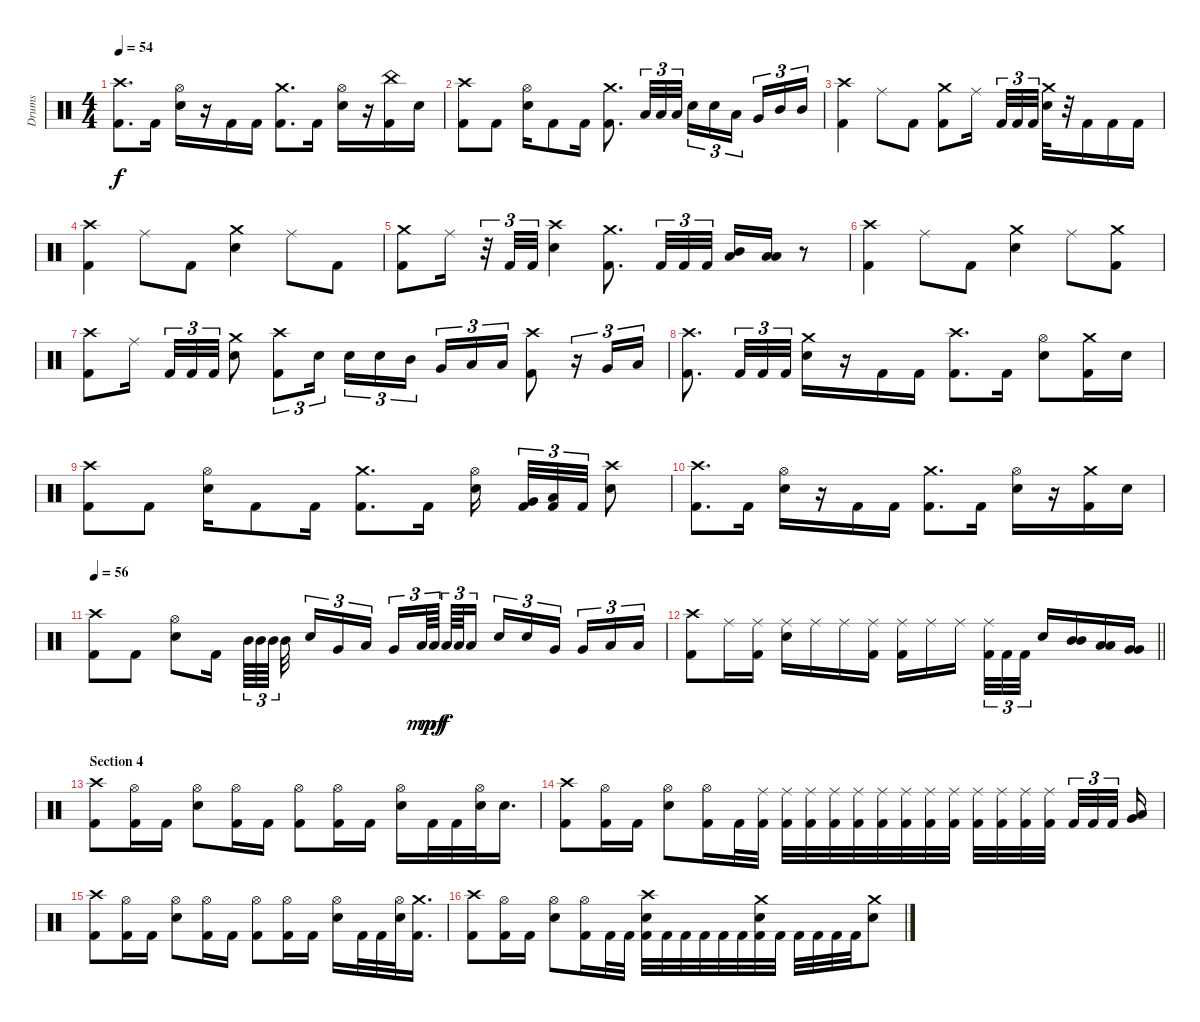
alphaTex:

\track ("Drums" "Drums") {instrument percussion}
\staff {score}
\articulation defaults
\ts (4 4)
\tempo 54
\clef neutral
\ks c
("Crash high (hit)" "Kick (hit) 2").8{d dy f} "Kick (hit) 2".16 ("Hi-Hat (open)" "Electric Snare (hit)").16 r.16 "Kick (hit) 2".16 "Kick (hit) 2".16 ("Crash medium (hit)" "Kick (hit) 2").8{d} "Kick (hit) 2".16 ("Hi-Hat (open)" "Electric Snare (hit)").16 r.16 ("China (hit)" "Kick (hit) 2").16 "Electric Snare (hit)".16 |
("Crash high (hit)" "Kick (hit) 2").8 "Kick (hit) 2".8 ("Hi-Hat (open)" "Electric Snare (hit)").16 "Kick (hit) 2".8 "Kick (hit) 2".16 ("Crash medium (hit)" "Kick (hit) 2").8{d} "Low Tom (hit)".32{tu (3 2)} "Low Tom (hit)".32{tu (3 2)} "Low Tom (hit)".32{tu (3 2)} "Electric Snare (hit)".16{tu (3 2)} "Electric Snare (hit)".16{tu (3 2)} "Low Tom (hit)".16{tu (3 2) beam splitsecondary} "Very Low Tom (hit)".16{tu (3 2)} "Mid Tom (hit)".16{tu (3 2)} "Mid Tom (hit)".16{tu (3 2)} |
("Crash high (hit)" "Kick (hit) 2").4 "Ride (middle)".8 "Kick (hit) 2".8 ("Crash medium (hit)" "Kick (hit) 2").8 "Ride (middle)".16{beam splitsecondary} "Kick (hit) 2".32{tu (3 2)} "Kick (hit) 2".32{tu (3 2)} "Kick (hit) 2".32{tu (3 2)} ("Crash medium (hit)" "Electric Snare (hit)").32 r.32 "Kick (hit) 2".16 "Kick (hit) 2".16 "Kick (hit) 2".16 |
("Crash high (hit)" "Kick (hit) 2").4 "Ride (middle)".8 "Kick (hit) 2".8 ("Crash medium (hit)" "Electric Snare (hit)").4 "Ride (middle)".8 "Kick (hit) 2".8 |
("Crash medium (hit)" "Kick (hit) 2").8 "Ride (middle)".16 r.32{tu (3 2)} "Kick (hit) 2".32{tu (3 2)} "Kick (hit) 2".32{tu (3 2)} ("Crash high (hit)" "Electric Snare (hit)").4 ("Crash medium (hit)" "Kick (hit) 2").8{d} "Kick (hit) 2".32{tu (3 2)} "Kick (hit) 2".32{tu (3 2)} "Kick (hit) 2".32{tu (3 2)} ("Mid Tom (hit)" "Low Floor Tom (hit)").16 ("Low Tom (hit)" "Low Floor Tom (hit)").16 r.8 |
("Crash high (hit)" "Kick (hit) 2").4 "Ride (middle)".8 "Kick (hit) 2".8 ("Crash medium (hit)" "Electric Snare (hit)").4 "Ride (middle)".8 ("Crash medium (hit)" "Kick (hit) 2").8 |
("Crash high (hit)" "Kick (hit) 2").8 "Ride (middle)".16{beam splitsecondary} "Kick (hit) 2".32{tu (3 2)} "Kick (hit) 2".32{tu (3 2)} "Kick (hit) 2".32{tu (3 2)} ("Crash medium (hit)" "Electric Snare (hit)").8 ("Crash high (hit)" "Kick (hit) 2").8{tu (3 2)} "Electric Snare (hit)".16{tu (3 2)} "Electric Snare (hit)".16{tu (3 2)} "Electric Snare (hit)".16{tu (3 2)} "Mid Tom (hit)".16{tu (3 2) beam splitsecondary} "Very Low Tom (hit)".16{tu (3 2)} "Low Tom (hit)".16{tu (3 2)} "Low Tom (hit)".16{tu (3 2)} ("Crash high (hit)" "Kick (hit) 2").8 r.16{tu (3 2)} "Very Low Tom (hit)".16{tu (3 2)} "Low Floor Tom (hit)".16{tu (3 2)} |
("Crash high (hit)" "Kick (hit) 2").8{d} "Kick (hit) 2".32{tu (3 2)} "Kick (hit) 2".32{tu (3 2)} "Kick (hit) 2".32{tu (3 2)} ("Crash medium (hit)" "Electric Snare (hit)").16 r.16 "Kick (hit) 2".16 "Kick (hit) 2".16 ("Crash high (hit)" "Kick (hit) 2").8{d} "Kick (hit) 2".16 ("Hi-Hat (open)" "Electric Snare (hit)").8 ("Crash medium (hit)" "Kick (hit) 2").16 "Electric Snare (hit)".16 |
("Crash high (hit)" "Kick (hit) 2").8 "Kick (hit) 2".8 ("Hi-Hat (open)" "Electric Snare (hit)").16 "Kick (hit) 2".8 "Kick (hit) 2".16 ("Crash medium (hit)" "Kick (hit) 2").8{d} "Kick (hit) 2".16 ("Hi-Hat (open)" "Electric Snare (hit)").16{beam splitsecondary} ("Very Low Tom (hit)" "Kick (hit) 2").32{tu (3 2)} ("Low Floor Tom (hit)" "Kick (hit) 2").32{tu (3 2)} "Kick (hit) 2".32{tu (3 2)} ("Crash high (hit)" "Electric Snare (hit)").8 |
("Crash high (hit)" "Kick (hit) 2").8{d} "Kick (hit) 2".16 ("Hi-Hat (open)" "Electric Snare (hit)").16 r.16 "Kick (hit) 2".16 "Kick (hit) 2".16 ("Crash medium (hit)" "Kick (hit) 2").8{d} "Kick (hit) 2".16 ("Hi-Hat (open)" "Electric Snare (hit)").16 r.16 ("Crash medium (hit)" "Kick (hit) 2").16 "Electric Snare (hit)".16 |
\tempo 56
("Crash high (hit)" "Kick (hit) 2").8 "Kick (hit) 2".8 ("Hi-Hat (open)" "Electric Snare (hit)").8 "Kick (hit) 2".16{beam splitsecondary} "Mid Tom (hit)".64{tu (3 2)} "Mid Tom (hit)".64{tu (3 2)} "Mid Tom (hit)".64{tu (3 2) beam splitsecondary} "Mid Tom (hit)".32 "Electric Snare (hit)".16{tu (3 2)} "Very Low Tom (hit)".16{tu (3 2)} "Low Tom (hit)".16{tu (3 2) beam splitsecondary} "Very Low Tom (hit)".16{tu (3 2)} "Low Tom (hit)".64{tu (3 2) dy mp} "Low Tom (hit)".64{tu (3 2) dy mf beam splitsecondary} "Low Tom (hit)".64{tu (3 2) dy f} "Low Tom (hit)".64{tu (3 2)} "Low Floor Tom (hit)".16{tu (3 2)} "Electric Snare (hit)".16{tu (3 2)} "Electric Snare (hit)".16{tu (3 2)} "Very Low Tom (hit)".16{tu (3 2) beam splitsecondary} "Very Low Tom (hit)".16{tu (3 2)} "Low Floor Tom (hit)".16{tu (3 2)} "Low Floor Tom (hit)".16{tu (3 2)} |
\barLineRight lightlight
("Crash high (hit)" "Kick (hit) 2").8 "Ride (middle)".16 ("Ride (middle)" "Kick (hit) 2").16 ("Ride (middle)" "Electric Snare (hit)").16 "Ride (middle)".16 "Ride (middle)".16 ("Ride (middle)" "Kick (hit) 2").16 ("Ride (middle)" "Kick (hit) 2").16 "Ride (middle)".16 "Ride (middle)".16{beam splitsecondary} ("Ride (middle)" "Kick (hit) 2").32{tu (3 2)} "Kick (hit) 2".32{tu (3 2)} "Kick (hit) 2".32{tu (3 2)} "Electric Snare (hit)".16 ("Mid Tom (hit)" "Mid Tom (hit)").16{bu 60} ("Low Tom (hit)" "Low Tom (hit)").16{bu 60} ("Very Low Tom (hit)" "Very Low Tom (hit)").16{bu 60} |
\section ("" "Section 4")
("Crash high (hit)" "Kick (hit) 2").8 ("Hi-Hat (open)" "Kick (hit) 2").16 "Kick (hit) 2".16 ("Hi-Hat (open)" "Electric Snare (hit)").8 ("Hi-Hat (open)" "Kick (hit) 2").16 "Kick (hit) 2".16 ("Hi-Hat (open)" "Kick (hit) 2").8 ("Hi-Hat (open)" "Kick (hit) 2").16 "Kick (hit) 2".16 ("Hi-Hat (open)" "Electric Snare (hit)").16 "Kick (hit) 2".32 "Kick (hit) 2".32 ("Hi-Hat (open)" "Electric Snare (hit)").32 "Electric Snare (hit)".16{d} |
("Crash high (hit)" "Kick (hit) 2").8 ("Hi-Hat (open)" "Kick (hit) 2").16 "Kick (hit) 2".16 ("Hi-Hat (open)" "Electric Snare (hit)").8 ("Hi-Hat (open)" "Kick (hit) 2").16 "Kick (hit) 2".32 ("Ride (middle)" "Kick (hit) 2").32 ("Ride (middle)" "Kick (hit) 2").32 ("Ride (middle)" "Kick (hit) 2").32 ("Ride (middle)" "Kick (hit) 2").32 ("Ride (middle)" "Kick (hit) 2").32 ("Ride (middle)" "Kick (hit) 2").32 ("Ride (middle)" "Kick (hit) 2").32 ("Ride (middle)" "Kick (hit) 2").32 ("Ride (middle)" "Kick (hit) 2").32 ("Ride (middle)" "Kick (hit) 2").32 ("Ride (middle)" "Kick (hit) 2").32 ("Ride (middle)" "Kick (hit) 2").32 ("Ride (middle)" "Kick (hit) 2").32{beam splitsecondary} "Kick (hit) 2".32{tu (3 2)} "Kick (hit) 2".32{tu (3 2)} "Kick (hit) 2".32{tu (3 2) beam splitsecondary} ("Low Tom (hit)" "Very Low Tom (hit)").16 |
("Crash high (hit)" "Kick (hit) 2").8 ("Hi-Hat (open)" "Kick (hit) 2").16 "Kick (hit) 2".16 ("Hi-Hat (open)" "Electric Snare (hit)").8 ("Hi-Hat (open)" "Kick (hit) 2").16 "Kick (hit) 2".16 ("Hi-Hat (open)" "Kick (hit) 2").8 ("Hi-Hat (open)" "Kick (hit) 2").16 "Kick (hit) 2".16 ("Hi-Hat (open)" "Electric Snare (hit)").16 "Kick (hit) 2".32 "Kick (hit) 2".32 ("Hi-Hat (open)" "Electric Snare (hit)").32 ("Crash medium (hit)" "Kick (hit) 2").16{d} |
("Crash high (hit)" "Kick (hit) 2").8 ("Hi-Hat (open)" "Kick (hit) 2").16 "Kick (hit) 2".16 ("Hi-Hat (open)" "Electric Snare (hit)").8 ("Hi-Hat (open)" "Kick (hit) 2").16 "Kick (hit) 2".32 "Kick (hit) 2".32 ("Crash high (hit)" "Electric Snare (hit)" "Kick (hit) 2").32 "Kick (hit) 2".32 "Kick (hit) 2".32 "Kick (hit) 2".32 "Kick (hit) 2".32 "Kick (hit) 2".32 ("Crash medium (hit)" "Electric Snare (hit)" "Kick (hit) 2").32 "Kick (hit) 2".32 "Kick (hit) 2".32 "Kick (hit) 2".32 "Kick (hit) 2".32 "Kick (hit) 2".32 ("Crash medium (hit)" "Electric Snare (hit)").8
